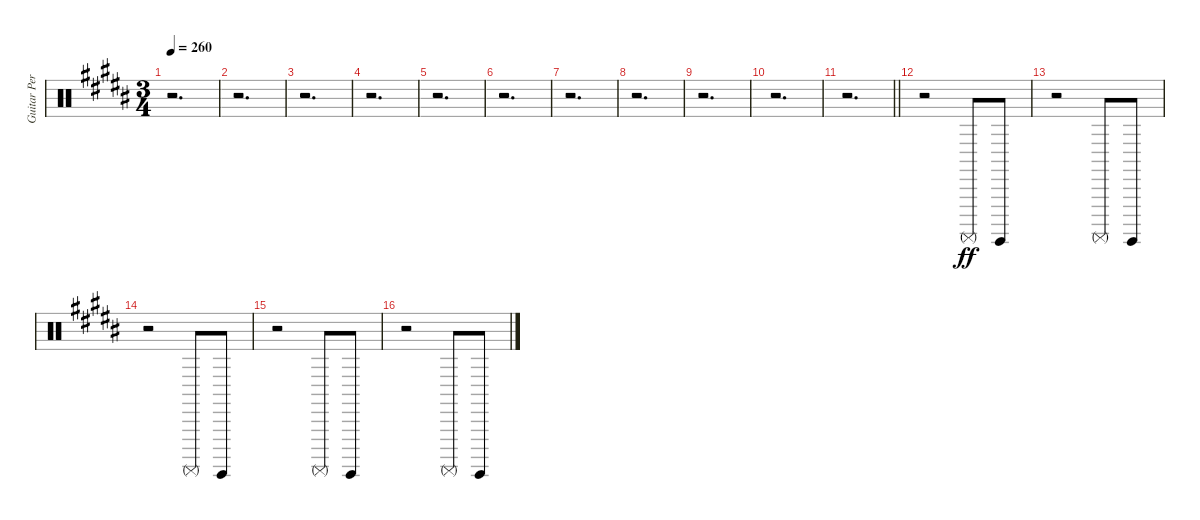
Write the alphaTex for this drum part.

\track ("Guitar Percussion Noises" "Guitar Per") {instrument percussion}
\staff {score}
\articulation defaults
\ts (3 4)
\tempo 260
\clef neutral
\ks b
r.2{d dy ff} |
r.2{d} |
r.2{d} |
r.2{d} |
r.2{d} |
r.2{d} |
r.2{d} |
r.2{d} |
r.2{d} |
r.2{d} |
\barLineRight lightlight
r.2{d} |
r.2 "Surdo (mute)".8 "Surdo (hit)".8 |
r.2 "Surdo (mute)".8 "Surdo (hit)".8 |
r.2 "Surdo (mute)".8 "Surdo (hit)".8 |
r.2 "Surdo (mute)".8 "Surdo (hit)".8 |
r.2 "Surdo (mute)".8 "Surdo (hit)".8
